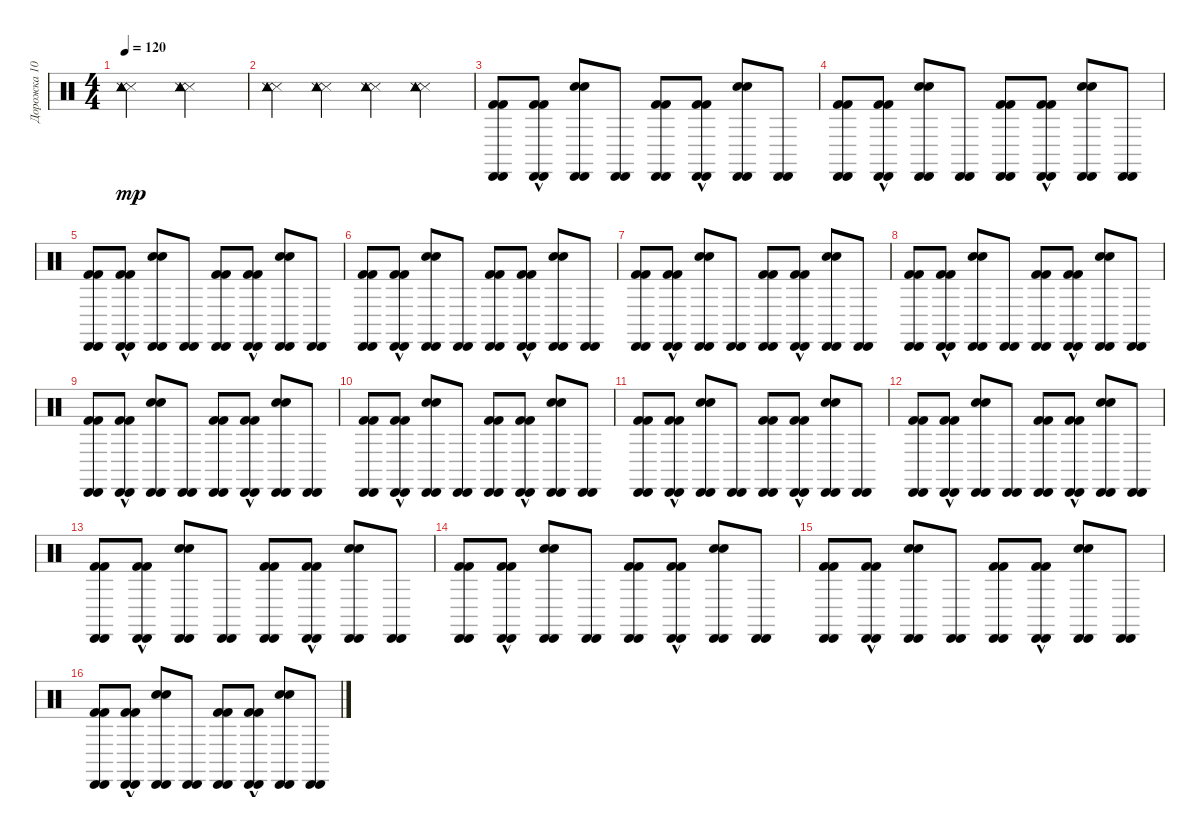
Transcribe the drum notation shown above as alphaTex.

\track ("Дорожка 10" "Дорожка 10") {instrument percussion}
\staff {score}
\articulation defaults
\ts (4 4)
\tempo 120
\clef neutral
\ks c
("Snare (side stick) 3" "Tambourine (hit)" "Snare (side stick) 3" "Tambourine (hit)").2{dy mp} ("Snare (side stick) 3" "Tambourine (hit)" "Snare (side stick) 3" "Tambourine (hit)").2 |
("Snare (side stick) 3" "Tambourine (hit)" "Snare (side stick) 3" "Tambourine (hit)").4 ("Snare (side stick) 3" "Tambourine (hit)" "Snare (side stick) 3" "Tambourine (hit)").4 ("Snare (side stick) 3" "Tambourine (hit)" "Snare (side stick) 3" "Tambourine (hit)").4 ("Snare (side stick) 3" "Tambourine (hit)" "Snare (side stick) 3" "Tambourine (hit)").4 |
("Kick (hit) 2" "Cabasa (hit)" "Kick (hit) 2" "Cabasa (hit)").8 ("Kick (hit) 2"{hac} "Cabasa (hit)" "Kick (hit) 2"{hac} "Cabasa (hit)").8 ("Snare (hit) 2" "Cabasa (hit)" "Snare (hit) 2" "Cabasa (hit)").8 ("Cabasa (hit)" "Cabasa (hit)").8 ("Kick (hit) 2" "Cabasa (hit)" "Kick (hit) 2" "Cabasa (hit)").8 ("Kick (hit) 2"{hac} "Cabasa (hit)" "Kick (hit) 2"{hac} "Cabasa (hit)").8 ("Snare (hit) 2" "Cabasa (hit)" "Snare (hit) 2" "Cabasa (hit)").8 ("Cabasa (hit)" "Cabasa (hit)").8 |
("Kick (hit) 2" "Cabasa (hit)" "Kick (hit) 2" "Cabasa (hit)").8 ("Kick (hit) 2"{hac} "Cabasa (hit)" "Kick (hit) 2"{hac} "Cabasa (hit)").8 ("Snare (hit) 2" "Cabasa (hit)" "Snare (hit) 2" "Cabasa (hit)").8 ("Cabasa (hit)" "Cabasa (hit)").8 ("Kick (hit) 2" "Cabasa (hit)" "Kick (hit) 2" "Cabasa (hit)").8 ("Kick (hit) 2"{hac} "Cabasa (hit)" "Kick (hit) 2"{hac} "Cabasa (hit)").8 ("Snare (hit) 2" "Cabasa (hit)" "Snare (hit) 2" "Cabasa (hit)").8 ("Cabasa (hit)" "Cabasa (hit)").8 |
("Kick (hit) 2" "Cabasa (hit)" "Kick (hit) 2" "Cabasa (hit)").8 ("Kick (hit) 2"{hac} "Cabasa (hit)" "Kick (hit) 2"{hac} "Cabasa (hit)").8 ("Snare (hit) 2" "Cabasa (hit)" "Snare (hit) 2" "Cabasa (hit)").8 ("Cabasa (hit)" "Cabasa (hit)").8 ("Kick (hit) 2" "Cabasa (hit)" "Kick (hit) 2" "Cabasa (hit)").8 ("Kick (hit) 2"{hac} "Cabasa (hit)" "Kick (hit) 2"{hac} "Cabasa (hit)").8 ("Snare (hit) 2" "Cabasa (hit)" "Snare (hit) 2" "Cabasa (hit)").8 ("Cabasa (hit)" "Cabasa (hit)").8 |
("Kick (hit) 2" "Cabasa (hit)" "Kick (hit) 2" "Cabasa (hit)").8 ("Kick (hit) 2"{hac} "Cabasa (hit)" "Kick (hit) 2"{hac} "Cabasa (hit)").8 ("Snare (hit) 2" "Cabasa (hit)" "Snare (hit) 2" "Cabasa (hit)").8 ("Cabasa (hit)" "Cabasa (hit)").8 ("Kick (hit) 2" "Cabasa (hit)" "Kick (hit) 2" "Cabasa (hit)").8 ("Kick (hit) 2"{hac} "Cabasa (hit)" "Kick (hit) 2"{hac} "Cabasa (hit)").8 ("Snare (hit) 2" "Cabasa (hit)" "Snare (hit) 2" "Cabasa (hit)").8 ("Cabasa (hit)" "Cabasa (hit)").8 |
("Kick (hit) 2" "Cabasa (hit)" "Kick (hit) 2" "Cabasa (hit)").8 ("Kick (hit) 2"{hac} "Cabasa (hit)" "Kick (hit) 2"{hac} "Cabasa (hit)").8 ("Snare (hit) 2" "Cabasa (hit)" "Snare (hit) 2" "Cabasa (hit)").8 ("Cabasa (hit)" "Cabasa (hit)").8 ("Kick (hit) 2" "Cabasa (hit)" "Kick (hit) 2" "Cabasa (hit)").8 ("Kick (hit) 2"{hac} "Cabasa (hit)" "Kick (hit) 2"{hac} "Cabasa (hit)").8 ("Snare (hit) 2" "Cabasa (hit)" "Snare (hit) 2" "Cabasa (hit)").8 ("Cabasa (hit)" "Cabasa (hit)").8 |
("Kick (hit) 2" "Cabasa (hit)" "Kick (hit) 2" "Cabasa (hit)").8 ("Kick (hit) 2"{hac} "Cabasa (hit)" "Kick (hit) 2"{hac} "Cabasa (hit)").8 ("Snare (hit) 2" "Cabasa (hit)" "Snare (hit) 2" "Cabasa (hit)").8 ("Cabasa (hit)" "Cabasa (hit)").8 ("Kick (hit) 2" "Cabasa (hit)" "Kick (hit) 2" "Cabasa (hit)").8 ("Kick (hit) 2"{hac} "Cabasa (hit)" "Kick (hit) 2"{hac} "Cabasa (hit)").8 ("Snare (hit) 2" "Cabasa (hit)" "Snare (hit) 2" "Cabasa (hit)").8 ("Cabasa (hit)" "Cabasa (hit)").8 |
("Kick (hit) 2" "Cabasa (hit)" "Kick (hit) 2" "Cabasa (hit)").8 ("Kick (hit) 2"{hac} "Cabasa (hit)" "Kick (hit) 2"{hac} "Cabasa (hit)").8 ("Snare (hit) 2" "Cabasa (hit)" "Snare (hit) 2" "Cabasa (hit)").8 ("Cabasa (hit)" "Cabasa (hit)").8 ("Kick (hit) 2" "Cabasa (hit)" "Kick (hit) 2" "Cabasa (hit)").8 ("Kick (hit) 2"{hac} "Cabasa (hit)" "Kick (hit) 2"{hac} "Cabasa (hit)").8 ("Snare (hit) 2" "Cabasa (hit)" "Snare (hit) 2" "Cabasa (hit)").8 ("Cabasa (hit)" "Cabasa (hit)").8 |
("Kick (hit) 2" "Cabasa (hit)" "Kick (hit) 2" "Cabasa (hit)").8 ("Kick (hit) 2"{hac} "Cabasa (hit)" "Kick (hit) 2"{hac} "Cabasa (hit)").8 ("Snare (hit) 2" "Cabasa (hit)" "Snare (hit) 2" "Cabasa (hit)").8 ("Cabasa (hit)" "Cabasa (hit)").8 ("Kick (hit) 2" "Cabasa (hit)" "Kick (hit) 2" "Cabasa (hit)").8 ("Kick (hit) 2"{hac} "Cabasa (hit)" "Kick (hit) 2"{hac} "Cabasa (hit)").8 ("Snare (hit) 2" "Cabasa (hit)" "Snare (hit) 2" "Cabasa (hit)").8 ("Cabasa (hit)" "Cabasa (hit)").8 |
("Kick (hit) 2" "Cabasa (hit)" "Kick (hit) 2" "Cabasa (hit)").8 ("Kick (hit) 2"{hac} "Cabasa (hit)" "Kick (hit) 2"{hac} "Cabasa (hit)").8 ("Snare (hit) 2" "Cabasa (hit)" "Snare (hit) 2" "Cabasa (hit)").8 ("Cabasa (hit)" "Cabasa (hit)").8 ("Kick (hit) 2" "Cabasa (hit)" "Kick (hit) 2" "Cabasa (hit)").8 ("Kick (hit) 2"{hac} "Cabasa (hit)" "Kick (hit) 2"{hac} "Cabasa (hit)").8 ("Snare (hit) 2" "Cabasa (hit)" "Snare (hit) 2" "Cabasa (hit)").8 ("Cabasa (hit)" "Cabasa (hit)").8 |
("Kick (hit) 2" "Cabasa (hit)" "Kick (hit) 2" "Cabasa (hit)").8 ("Kick (hit) 2"{hac} "Cabasa (hit)" "Kick (hit) 2"{hac} "Cabasa (hit)").8 ("Snare (hit) 2" "Cabasa (hit)" "Snare (hit) 2" "Cabasa (hit)").8 ("Cabasa (hit)" "Cabasa (hit)").8 ("Kick (hit) 2" "Cabasa (hit)" "Kick (hit) 2" "Cabasa (hit)").8 ("Kick (hit) 2"{hac} "Cabasa (hit)" "Kick (hit) 2"{hac} "Cabasa (hit)").8 ("Snare (hit) 2" "Cabasa (hit)" "Snare (hit) 2" "Cabasa (hit)").8 ("Cabasa (hit)" "Cabasa (hit)").8 |
("Kick (hit) 2" "Cabasa (hit)" "Kick (hit) 2" "Cabasa (hit)").8 ("Kick (hit) 2"{hac} "Cabasa (hit)" "Kick (hit) 2"{hac} "Cabasa (hit)").8 ("Snare (hit) 2" "Cabasa (hit)" "Snare (hit) 2" "Cabasa (hit)").8 ("Cabasa (hit)" "Cabasa (hit)").8 ("Kick (hit) 2" "Cabasa (hit)" "Kick (hit) 2" "Cabasa (hit)").8 ("Kick (hit) 2"{hac} "Cabasa (hit)" "Kick (hit) 2"{hac} "Cabasa (hit)").8 ("Snare (hit) 2" "Cabasa (hit)" "Snare (hit) 2" "Cabasa (hit)").8 ("Cabasa (hit)" "Cabasa (hit)").8 |
("Kick (hit) 2" "Cabasa (hit)" "Kick (hit) 2" "Cabasa (hit)").8 ("Kick (hit) 2"{hac} "Cabasa (hit)" "Kick (hit) 2"{hac} "Cabasa (hit)").8 ("Snare (hit) 2" "Cabasa (hit)" "Snare (hit) 2" "Cabasa (hit)").8 ("Cabasa (hit)" "Cabasa (hit)").8 ("Kick (hit) 2" "Cabasa (hit)" "Kick (hit) 2" "Cabasa (hit)").8 ("Kick (hit) 2"{hac} "Cabasa (hit)" "Kick (hit) 2"{hac} "Cabasa (hit)").8 ("Snare (hit) 2" "Cabasa (hit)" "Snare (hit) 2" "Cabasa (hit)").8 ("Cabasa (hit)" "Cabasa (hit)").8 |
("Kick (hit) 2" "Cabasa (hit)" "Kick (hit) 2" "Cabasa (hit)").8 ("Kick (hit) 2"{hac} "Cabasa (hit)" "Kick (hit) 2"{hac} "Cabasa (hit)").8 ("Snare (hit) 2" "Cabasa (hit)" "Snare (hit) 2" "Cabasa (hit)").8 ("Cabasa (hit)" "Cabasa (hit)").8 ("Kick (hit) 2" "Cabasa (hit)" "Kick (hit) 2" "Cabasa (hit)").8 ("Kick (hit) 2"{hac} "Cabasa (hit)" "Kick (hit) 2"{hac} "Cabasa (hit)").8 ("Snare (hit) 2" "Cabasa (hit)" "Snare (hit) 2" "Cabasa (hit)").8 ("Cabasa (hit)" "Cabasa (hit)").8 |
("Kick (hit) 2" "Cabasa (hit)" "Kick (hit) 2" "Cabasa (hit)").8 ("Kick (hit) 2"{hac} "Cabasa (hit)" "Kick (hit) 2"{hac} "Cabasa (hit)").8 ("Snare (hit) 2" "Cabasa (hit)" "Snare (hit) 2" "Cabasa (hit)").8 ("Cabasa (hit)" "Cabasa (hit)").8 ("Kick (hit) 2" "Cabasa (hit)" "Kick (hit) 2" "Cabasa (hit)").8 ("Kick (hit) 2"{hac} "Cabasa (hit)" "Kick (hit) 2"{hac} "Cabasa (hit)").8 ("Snare (hit) 2" "Cabasa (hit)" "Snare (hit) 2" "Cabasa (hit)").8 ("Cabasa (hit)" "Cabasa (hit)").8
